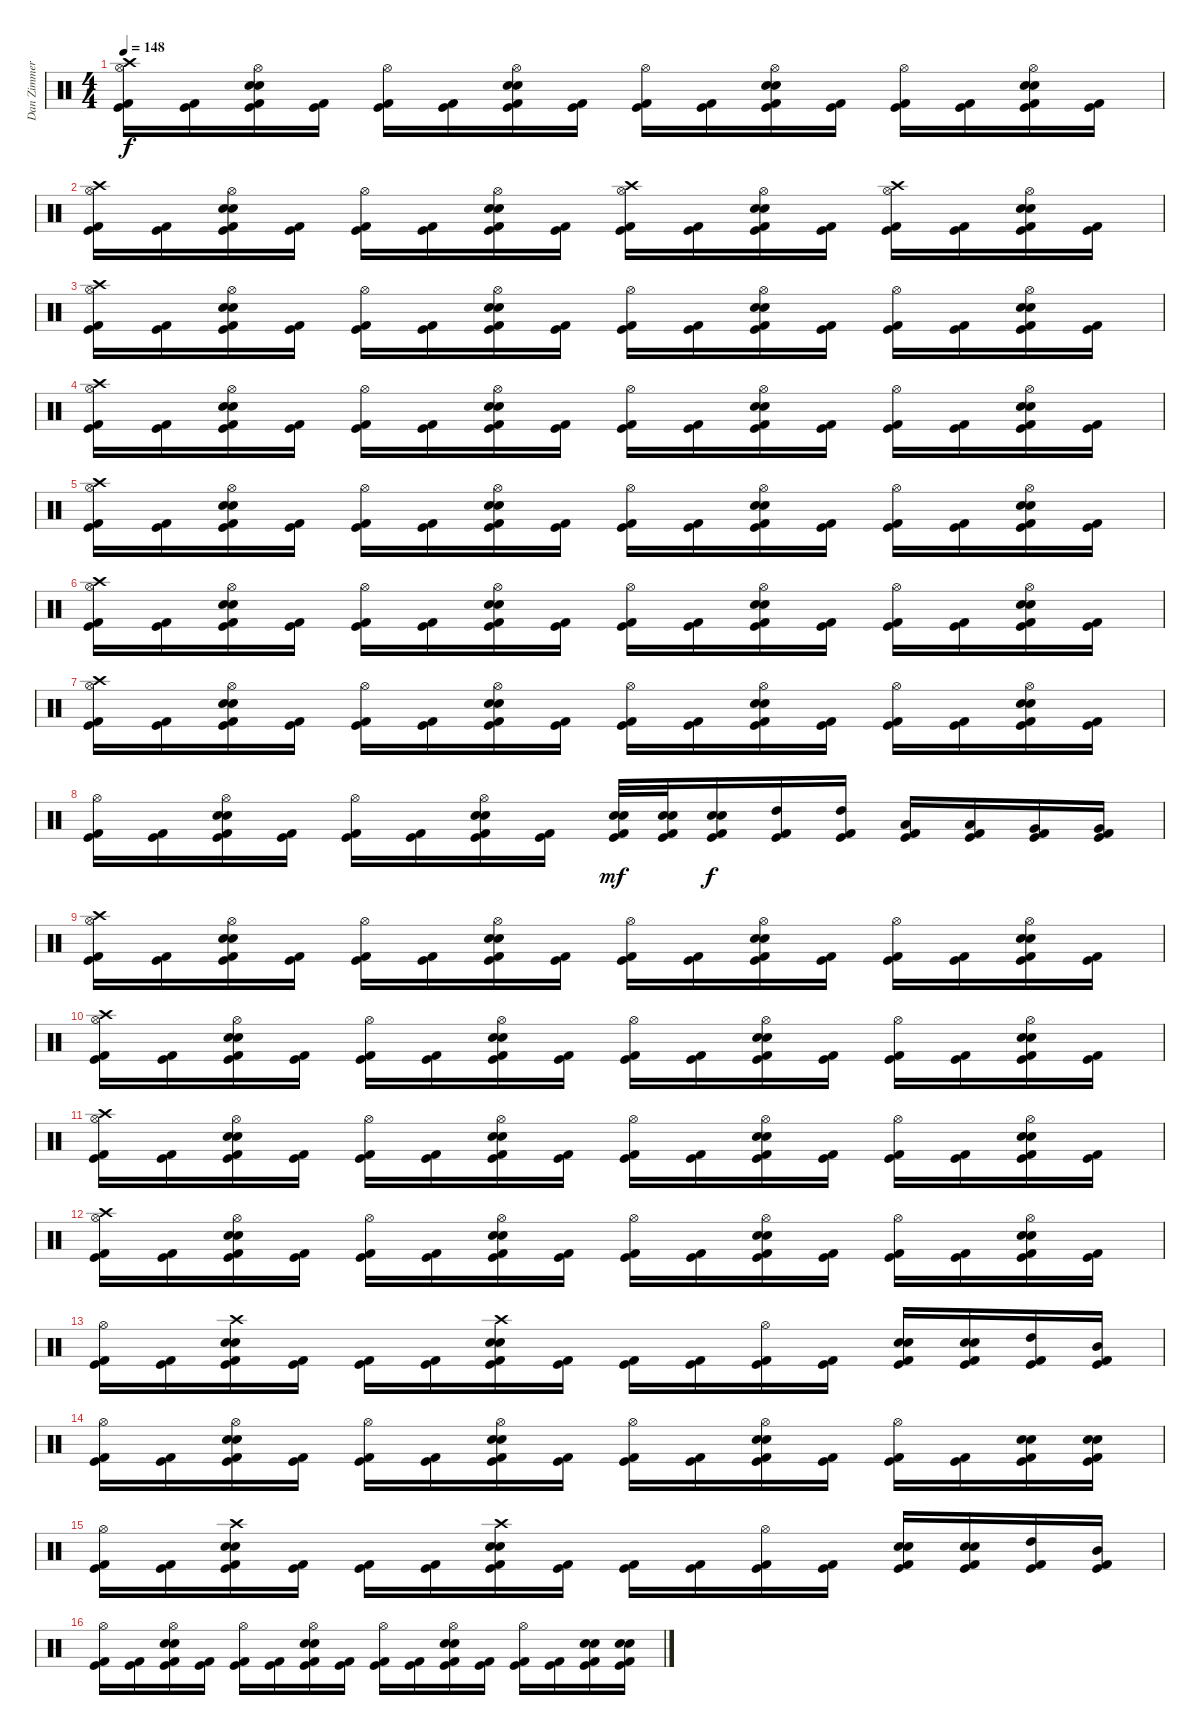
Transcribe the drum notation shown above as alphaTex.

\track ("Dan Zimmerman<Drum>" "Dan Zimmer") {instrument percussion}
\staff {score}
\articulation defaults
\ts (4 4)
\tempo 148
\clef neutral
\ks c
("Hi-Hat (open)" "Crash high (hit)" "Kick (hit) 2" "Kick (hit)").16{dy f} ("Kick (hit) 2" "Kick (hit)").16 ("Hi-Hat (open)" "Snare (hit) 2" "Electric Snare (hit)" "Kick (hit) 2" "Kick (hit)").16 ("Kick (hit) 2" "Kick (hit)").16 ("Hi-Hat (open)" "Kick (hit) 2" "Kick (hit)").16 ("Kick (hit) 2" "Kick (hit)").16 ("Hi-Hat (open)" "Snare (hit) 2" "Electric Snare (hit)" "Kick (hit) 2" "Kick (hit)").16 ("Kick (hit) 2" "Kick (hit)").16 ("Hi-Hat (open)" "Kick (hit) 2" "Kick (hit)").16 ("Kick (hit) 2" "Kick (hit)").16 ("Hi-Hat (open)" "Snare (hit) 2" "Electric Snare (hit)" "Kick (hit) 2" "Kick (hit)").16 ("Kick (hit) 2" "Kick (hit)").16 ("Hi-Hat (open)" "Kick (hit) 2" "Kick (hit)").16 ("Kick (hit) 2" "Kick (hit)").16 ("Hi-Hat (open)" "Snare (hit) 2" "Electric Snare (hit)" "Kick (hit) 2" "Kick (hit)").16 ("Kick (hit) 2" "Kick (hit)").16 |
("Hi-Hat (open)" "Crash high (hit)" "Kick (hit) 2" "Kick (hit)").16 ("Kick (hit) 2" "Kick (hit)").16 ("Hi-Hat (open)" "Snare (hit) 2" "Electric Snare (hit)" "Kick (hit) 2" "Kick (hit)").16 ("Kick (hit) 2" "Kick (hit)").16 ("Hi-Hat (open)" "Kick (hit) 2" "Kick (hit)").16 ("Kick (hit) 2" "Kick (hit)").16 ("Hi-Hat (open)" "Snare (hit) 2" "Electric Snare (hit)" "Kick (hit) 2" "Kick (hit)").16 ("Kick (hit) 2" "Kick (hit)").16 ("Hi-Hat (open)" "Crash high (hit)" "Kick (hit) 2" "Kick (hit)").16 ("Kick (hit) 2" "Kick (hit)").16 ("Hi-Hat (open)" "Snare (hit) 2" "Electric Snare (hit)" "Kick (hit) 2" "Kick (hit)").16 ("Kick (hit) 2" "Kick (hit)").16 ("Hi-Hat (open)" "Crash high (hit)" "Kick (hit) 2" "Kick (hit)").16 ("Kick (hit) 2" "Kick (hit)").16 ("Hi-Hat (open)" "Snare (hit) 2" "Electric Snare (hit)" "Kick (hit) 2" "Kick (hit)").16 ("Kick (hit) 2" "Kick (hit)").16 |
("Hi-Hat (open)" "Crash high (hit)" "Kick (hit) 2" "Kick (hit)").16 ("Kick (hit) 2" "Kick (hit)").16 ("Hi-Hat (open)" "Snare (hit) 2" "Electric Snare (hit)" "Kick (hit) 2" "Kick (hit)").16 ("Kick (hit) 2" "Kick (hit)").16 ("Hi-Hat (open)" "Kick (hit) 2" "Kick (hit)").16 ("Kick (hit) 2" "Kick (hit)").16 ("Hi-Hat (open)" "Snare (hit) 2" "Electric Snare (hit)" "Kick (hit) 2" "Kick (hit)").16 ("Kick (hit) 2" "Kick (hit)").16 ("Hi-Hat (open)" "Kick (hit) 2" "Kick (hit)").16 ("Kick (hit) 2" "Kick (hit)").16 ("Hi-Hat (open)" "Snare (hit) 2" "Electric Snare (hit)" "Kick (hit) 2" "Kick (hit)").16 ("Kick (hit) 2" "Kick (hit)").16 ("Hi-Hat (open)" "Kick (hit) 2" "Kick (hit)").16 ("Kick (hit) 2" "Kick (hit)").16 ("Hi-Hat (open)" "Snare (hit) 2" "Electric Snare (hit)" "Kick (hit) 2" "Kick (hit)").16 ("Kick (hit) 2" "Kick (hit)").16 |
("Hi-Hat (open)" "Crash high (hit)" "Kick (hit) 2" "Kick (hit)").16 ("Kick (hit) 2" "Kick (hit)").16 ("Hi-Hat (open)" "Snare (hit) 2" "Electric Snare (hit)" "Kick (hit) 2" "Kick (hit)").16 ("Kick (hit) 2" "Kick (hit)").16 ("Hi-Hat (open)" "Kick (hit) 2" "Kick (hit)").16 ("Kick (hit) 2" "Kick (hit)").16 ("Hi-Hat (open)" "Snare (hit) 2" "Electric Snare (hit)" "Kick (hit) 2" "Kick (hit)").16 ("Kick (hit) 2" "Kick (hit)").16 ("Hi-Hat (open)" "Kick (hit) 2" "Kick (hit)").16 ("Kick (hit) 2" "Kick (hit)").16 ("Hi-Hat (open)" "Snare (hit) 2" "Electric Snare (hit)" "Kick (hit) 2" "Kick (hit)").16 ("Kick (hit) 2" "Kick (hit)").16 ("Hi-Hat (open)" "Kick (hit) 2" "Kick (hit)").16 ("Kick (hit) 2" "Kick (hit)").16 ("Hi-Hat (open)" "Snare (hit) 2" "Electric Snare (hit)" "Kick (hit) 2" "Kick (hit)").16 ("Kick (hit) 2" "Kick (hit)").16 |
("Hi-Hat (open)" "Crash high (hit)" "Kick (hit) 2" "Kick (hit)").16 ("Kick (hit) 2" "Kick (hit)").16 ("Hi-Hat (open)" "Snare (hit) 2" "Electric Snare (hit)" "Kick (hit) 2" "Kick (hit)").16 ("Kick (hit) 2" "Kick (hit)").16 ("Hi-Hat (open)" "Kick (hit) 2" "Kick (hit)").16 ("Kick (hit) 2" "Kick (hit)").16 ("Hi-Hat (open)" "Snare (hit) 2" "Electric Snare (hit)" "Kick (hit) 2" "Kick (hit)").16 ("Kick (hit) 2" "Kick (hit)").16 ("Hi-Hat (open)" "Kick (hit) 2" "Kick (hit)").16 ("Kick (hit) 2" "Kick (hit)").16 ("Hi-Hat (open)" "Snare (hit) 2" "Electric Snare (hit)" "Kick (hit) 2" "Kick (hit)").16 ("Kick (hit) 2" "Kick (hit)").16 ("Hi-Hat (open)" "Kick (hit) 2" "Kick (hit)").16 ("Kick (hit) 2" "Kick (hit)").16 ("Hi-Hat (open)" "Snare (hit) 2" "Electric Snare (hit)" "Kick (hit) 2" "Kick (hit)").16 ("Kick (hit) 2" "Kick (hit)").16 |
("Hi-Hat (open)" "Crash high (hit)" "Kick (hit) 2" "Kick (hit)").16 ("Kick (hit) 2" "Kick (hit)").16 ("Hi-Hat (open)" "Snare (hit) 2" "Electric Snare (hit)" "Kick (hit) 2" "Kick (hit)").16 ("Kick (hit) 2" "Kick (hit)").16 ("Hi-Hat (open)" "Kick (hit) 2" "Kick (hit)").16 ("Kick (hit) 2" "Kick (hit)").16 ("Hi-Hat (open)" "Snare (hit) 2" "Electric Snare (hit)" "Kick (hit) 2" "Kick (hit)").16 ("Kick (hit) 2" "Kick (hit)").16 ("Hi-Hat (open)" "Kick (hit) 2" "Kick (hit)").16 ("Kick (hit) 2" "Kick (hit)").16 ("Hi-Hat (open)" "Snare (hit) 2" "Electric Snare (hit)" "Kick (hit) 2" "Kick (hit)").16 ("Kick (hit) 2" "Kick (hit)").16 ("Hi-Hat (open)" "Kick (hit) 2" "Kick (hit)").16 ("Kick (hit) 2" "Kick (hit)").16 ("Hi-Hat (open)" "Snare (hit) 2" "Electric Snare (hit)" "Kick (hit) 2" "Kick (hit)").16 ("Kick (hit) 2" "Kick (hit)").16 |
("Hi-Hat (open)" "Crash high (hit)" "Kick (hit) 2" "Kick (hit)").16 ("Kick (hit) 2" "Kick (hit)").16 ("Hi-Hat (open)" "Snare (hit) 2" "Electric Snare (hit)" "Kick (hit) 2" "Kick (hit)").16 ("Kick (hit) 2" "Kick (hit)").16 ("Hi-Hat (open)" "Kick (hit) 2" "Kick (hit)").16 ("Kick (hit) 2" "Kick (hit)").16 ("Hi-Hat (open)" "Snare (hit) 2" "Electric Snare (hit)" "Kick (hit) 2" "Kick (hit)").16 ("Kick (hit) 2" "Kick (hit)").16 ("Hi-Hat (open)" "Kick (hit) 2" "Kick (hit)").16 ("Kick (hit) 2" "Kick (hit)").16 ("Hi-Hat (open)" "Snare (hit) 2" "Electric Snare (hit)" "Kick (hit) 2" "Kick (hit)").16 ("Kick (hit) 2" "Kick (hit)").16 ("Hi-Hat (open)" "Kick (hit) 2" "Kick (hit)").16 ("Kick (hit) 2" "Kick (hit)").16 ("Hi-Hat (open)" "Snare (hit) 2" "Electric Snare (hit)" "Kick (hit) 2" "Kick (hit)").16 ("Kick (hit) 2" "Kick (hit)").16 |
("Hi-Hat (open)" "Kick (hit) 2" "Kick (hit)").16 ("Kick (hit) 2" "Kick (hit)").16 ("Hi-Hat (open)" "Snare (hit) 2" "Electric Snare (hit)" "Kick (hit) 2" "Kick (hit)").16 ("Kick (hit) 2" "Kick (hit)").16 ("Hi-Hat (open)" "Kick (hit) 2" "Kick (hit)").16 ("Kick (hit) 2" "Kick (hit)").16 ("Hi-Hat (open)" "Snare (hit) 2" "Electric Snare (hit)" "Kick (hit) 2" "Kick (hit)").16 ("Kick (hit) 2" "Kick (hit)").16 ("Snare (hit) 2" "Electric Snare (hit)" "Kick (hit) 2" "Kick (hit)").32{dy mf} ("Snare (hit) 2" "Electric Snare (hit)" "Kick (hit) 2" "Kick (hit)").32 ("Electric Snare (hit)" "Snare (hit) 2" "Kick (hit) 2" "Kick (hit)").16{dy f} ("High Tom (hit)" "Kick (hit) 2" "Kick (hit)").16 ("High Tom (hit)" "Kick (hit) 2" "Kick (hit)").16 ("Low Tom (hit)" "Kick (hit) 2" "Kick (hit)").16 ("Low Tom (hit)" "Kick (hit) 2" "Kick (hit)").16 ("Very Low Tom (hit)" "Kick (hit) 2" "Kick (hit)").16 ("Very Low Tom (hit)" "Kick (hit) 2" "Kick (hit)").16 |
("Hi-Hat (open)" "Crash high (hit)" "Kick (hit) 2" "Kick (hit)").16 ("Kick (hit) 2" "Kick (hit)").16 ("Hi-Hat (open)" "Snare (hit) 2" "Electric Snare (hit)" "Kick (hit) 2" "Kick (hit)").16 ("Kick (hit) 2" "Kick (hit)").16 ("Hi-Hat (open)" "Kick (hit) 2" "Kick (hit)").16 ("Kick (hit) 2" "Kick (hit)").16 ("Hi-Hat (open)" "Snare (hit) 2" "Electric Snare (hit)" "Kick (hit) 2" "Kick (hit)").16 ("Kick (hit) 2" "Kick (hit)").16 ("Hi-Hat (open)" "Kick (hit) 2" "Kick (hit)").16 ("Kick (hit) 2" "Kick (hit)").16 ("Hi-Hat (open)" "Snare (hit) 2" "Electric Snare (hit)" "Kick (hit) 2" "Kick (hit)").16 ("Kick (hit) 2" "Kick (hit)").16 ("Hi-Hat (open)" "Kick (hit) 2" "Kick (hit)").16 ("Kick (hit) 2" "Kick (hit)").16 ("Hi-Hat (open)" "Snare (hit) 2" "Electric Snare (hit)" "Kick (hit) 2" "Kick (hit)").16 ("Kick (hit) 2" "Kick (hit)").16 |
("Hi-Hat (open)" "Crash high (hit)" "Kick (hit) 2" "Kick (hit)").16 ("Kick (hit) 2" "Kick (hit)").16 ("Hi-Hat (open)" "Snare (hit) 2" "Electric Snare (hit)" "Kick (hit) 2" "Kick (hit)").16 ("Kick (hit) 2" "Kick (hit)").16 ("Hi-Hat (open)" "Kick (hit) 2" "Kick (hit)").16 ("Kick (hit) 2" "Kick (hit)").16 ("Hi-Hat (open)" "Snare (hit) 2" "Electric Snare (hit)" "Kick (hit) 2" "Kick (hit)").16 ("Kick (hit) 2" "Kick (hit)").16 ("Hi-Hat (open)" "Kick (hit) 2" "Kick (hit)").16 ("Kick (hit) 2" "Kick (hit)").16 ("Hi-Hat (open)" "Snare (hit) 2" "Electric Snare (hit)" "Kick (hit) 2" "Kick (hit)").16 ("Kick (hit) 2" "Kick (hit)").16 ("Hi-Hat (open)" "Kick (hit) 2" "Kick (hit)").16 ("Kick (hit) 2" "Kick (hit)").16 ("Hi-Hat (open)" "Snare (hit) 2" "Electric Snare (hit)" "Kick (hit) 2" "Kick (hit)").16 ("Kick (hit) 2" "Kick (hit)").16 |
("Hi-Hat (open)" "Crash high (hit)" "Kick (hit) 2" "Kick (hit)").16 ("Kick (hit) 2" "Kick (hit)").16 ("Hi-Hat (open)" "Snare (hit) 2" "Electric Snare (hit)" "Kick (hit) 2" "Kick (hit)").16 ("Kick (hit) 2" "Kick (hit)").16 ("Hi-Hat (open)" "Kick (hit) 2" "Kick (hit)").16 ("Kick (hit) 2" "Kick (hit)").16 ("Hi-Hat (open)" "Snare (hit) 2" "Electric Snare (hit)" "Kick (hit) 2" "Kick (hit)").16 ("Kick (hit) 2" "Kick (hit)").16 ("Hi-Hat (open)" "Kick (hit) 2" "Kick (hit)").16 ("Kick (hit) 2" "Kick (hit)").16 ("Hi-Hat (open)" "Snare (hit) 2" "Electric Snare (hit)" "Kick (hit) 2" "Kick (hit)").16 ("Kick (hit) 2" "Kick (hit)").16 ("Hi-Hat (open)" "Kick (hit) 2" "Kick (hit)").16 ("Kick (hit) 2" "Kick (hit)").16 ("Hi-Hat (open)" "Snare (hit) 2" "Electric Snare (hit)" "Kick (hit) 2" "Kick (hit)").16 ("Kick (hit) 2" "Kick (hit)").16 |
("Hi-Hat (open)" "Crash high (hit)" "Kick (hit) 2" "Kick (hit)").16 ("Kick (hit) 2" "Kick (hit)").16 ("Hi-Hat (open)" "Snare (hit) 2" "Electric Snare (hit)" "Kick (hit) 2" "Kick (hit)").16 ("Kick (hit) 2" "Kick (hit)").16 ("Hi-Hat (open)" "Kick (hit) 2" "Kick (hit)").16 ("Kick (hit) 2" "Kick (hit)").16 ("Hi-Hat (open)" "Snare (hit) 2" "Electric Snare (hit)" "Kick (hit) 2" "Kick (hit)").16 ("Kick (hit) 2" "Kick (hit)").16 ("Hi-Hat (open)" "Kick (hit) 2" "Kick (hit)").16 ("Kick (hit) 2" "Kick (hit)").16 ("Hi-Hat (open)" "Snare (hit) 2" "Electric Snare (hit)" "Kick (hit) 2" "Kick (hit)").16 ("Kick (hit) 2" "Kick (hit)").16 ("Hi-Hat (open)" "Kick (hit) 2" "Kick (hit)").16 ("Kick (hit) 2" "Kick (hit)").16 ("Hi-Hat (open)" "Snare (hit) 2" "Electric Snare (hit)" "Kick (hit) 2" "Kick (hit)").16 ("Kick (hit) 2" "Kick (hit)").16 |
("Hi-Hat (open)" "Kick (hit) 2" "Kick (hit)").16 ("Kick (hit) 2" "Kick (hit)").16 ("Crash high (hit)" "Snare (hit) 2" "Electric Snare (hit)" "Kick (hit) 2" "Kick (hit)").16 ("Kick (hit) 2" "Kick (hit)").16 ("Kick (hit) 2" "Kick (hit)").16 ("Kick (hit) 2" "Kick (hit)").16 ("Crash high (hit)" "Snare (hit) 2" "Electric Snare (hit)" "Kick (hit) 2" "Kick (hit)").16 ("Kick (hit) 2" "Kick (hit)").16 ("Kick (hit) 2" "Kick (hit)").16 ("Kick (hit) 2" "Kick (hit)").16 ("Hi-Hat (open)" "Kick (hit) 2" "Kick (hit)").16 ("Kick (hit) 2" "Kick (hit)").16 ("Snare (hit) 2" "Electric Snare (hit)" "Kick (hit) 2" "Kick (hit)").16 ("Snare (hit) 2" "Electric Snare (hit)" "Kick (hit) 2" "Kick (hit)").16 ("High Tom (hit)" "Kick (hit) 2" "Kick (hit)").16 ("Mid Tom (hit)" "Kick (hit) 2" "Kick (hit)").16 |
("Hi-Hat (open)" "Kick (hit) 2" "Kick (hit)").16 ("Kick (hit) 2" "Kick (hit)").16 ("Hi-Hat (open)" "Snare (hit) 2" "Electric Snare (hit)" "Kick (hit) 2" "Kick (hit)").16 ("Kick (hit) 2" "Kick (hit)").16 ("Hi-Hat (open)" "Kick (hit) 2" "Kick (hit)").16 ("Kick (hit) 2" "Kick (hit)").16 ("Hi-Hat (open)" "Snare (hit) 2" "Electric Snare (hit)" "Kick (hit) 2" "Kick (hit)").16 ("Kick (hit) 2" "Kick (hit)").16 ("Hi-Hat (open)" "Kick (hit) 2" "Kick (hit)").16 ("Kick (hit) 2" "Kick (hit)").16 ("Hi-Hat (open)" "Snare (hit) 2" "Electric Snare (hit)" "Kick (hit) 2" "Kick (hit)").16 ("Kick (hit) 2" "Kick (hit)").16 ("Hi-Hat (open)" "Kick (hit) 2" "Kick (hit)").16 ("Kick (hit) 2" "Kick (hit)").16 ("Snare (hit) 2" "Electric Snare (hit)" "Kick (hit) 2" "Kick (hit)").16 ("Snare (hit) 2" "Electric Snare (hit)" "Kick (hit) 2" "Kick (hit)").16 |
("Hi-Hat (open)" "Kick (hit) 2" "Kick (hit)").16 ("Kick (hit) 2" "Kick (hit)").16 ("Crash high (hit)" "Snare (hit) 2" "Electric Snare (hit)" "Kick (hit) 2" "Kick (hit)").16 ("Kick (hit) 2" "Kick (hit)").16 ("Kick (hit) 2" "Kick (hit)").16 ("Kick (hit) 2" "Kick (hit)").16 ("Crash high (hit)" "Snare (hit) 2" "Electric Snare (hit)" "Kick (hit) 2" "Kick (hit)").16 ("Kick (hit) 2" "Kick (hit)").16 ("Kick (hit) 2" "Kick (hit)").16 ("Kick (hit) 2" "Kick (hit)").16 ("Hi-Hat (open)" "Kick (hit) 2" "Kick (hit)").16 ("Kick (hit) 2" "Kick (hit)").16 ("Snare (hit) 2" "Electric Snare (hit)" "Kick (hit) 2" "Kick (hit)").16 ("Snare (hit) 2" "Electric Snare (hit)" "Kick (hit) 2" "Kick (hit)").16 ("High Tom (hit)" "Kick (hit) 2" "Kick (hit)").16 ("Mid Tom (hit)" "Kick (hit) 2" "Kick (hit)").16 |
("Hi-Hat (open)" "Kick (hit) 2" "Kick (hit)").16 ("Kick (hit) 2" "Kick (hit)").16 ("Hi-Hat (open)" "Snare (hit) 2" "Electric Snare (hit)" "Kick (hit) 2" "Kick (hit)").16 ("Kick (hit) 2" "Kick (hit)").16 ("Hi-Hat (open)" "Kick (hit) 2" "Kick (hit)").16 ("Kick (hit) 2" "Kick (hit)").16 ("Hi-Hat (open)" "Snare (hit) 2" "Electric Snare (hit)" "Kick (hit) 2" "Kick (hit)").16 ("Kick (hit) 2" "Kick (hit)").16 ("Hi-Hat (open)" "Kick (hit) 2" "Kick (hit)").16 ("Kick (hit) 2" "Kick (hit)").16 ("Hi-Hat (open)" "Snare (hit) 2" "Electric Snare (hit)" "Kick (hit) 2" "Kick (hit)").16 ("Kick (hit) 2" "Kick (hit)").16 ("Hi-Hat (open)" "Kick (hit) 2" "Kick (hit)").16 ("Kick (hit) 2" "Kick (hit)").16 ("Snare (hit) 2" "Electric Snare (hit)" "Kick (hit) 2" "Kick (hit)").16 ("Snare (hit) 2" "Electric Snare (hit)" "Kick (hit) 2" "Kick (hit)").16
